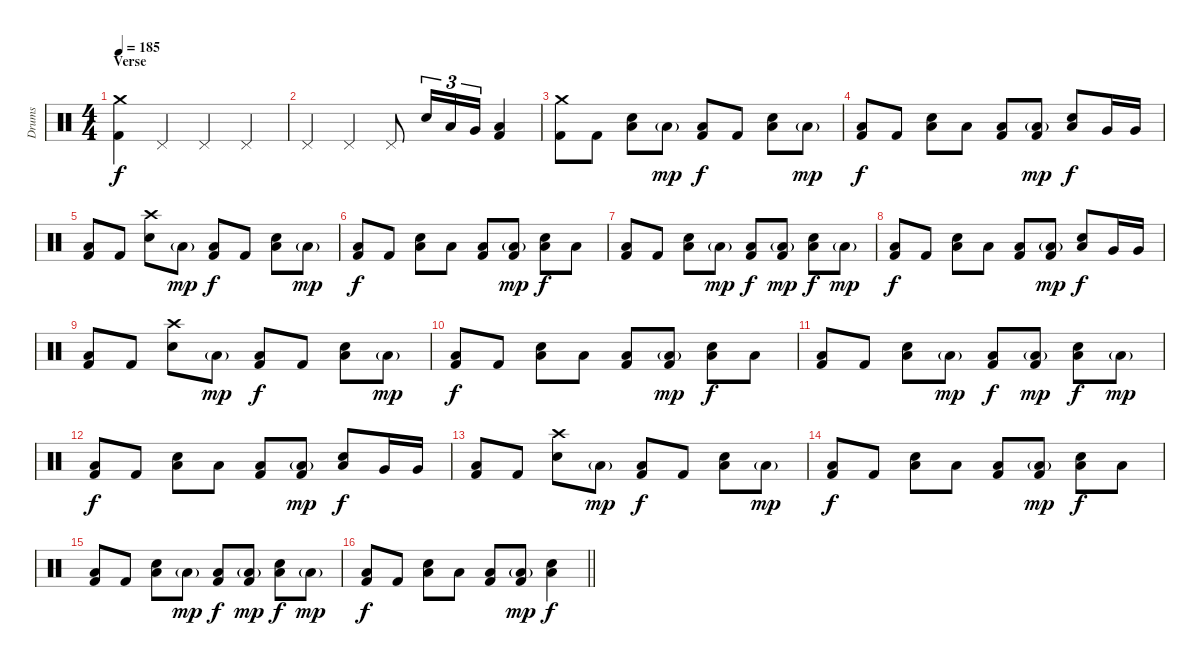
\track ("Drums" "Drums") {instrument percussion}
\staff {score}
\articulation defaults
\ts (4 4)
\section ("" "Verse")
\tempo 185
\clef neutral
\ks c
("Crash medium (hit)" "Kick (hit) 2").4{dy f} "Pedal Hi-Hat (hit)".4 "Pedal Hi-Hat (hit)".4 "Pedal Hi-Hat (hit)".4 |
"Pedal Hi-Hat (hit)".4 "Pedal Hi-Hat (hit)".4 "Pedal Hi-Hat (hit)".8 "Electric Snare (hit)".16{tu (3 2)} "Low Tom (hit)".16{tu (3 2)} "Very Low Tom (hit)".16{tu (3 2)} ("Low Floor Tom (hit)" "Kick (hit) 2").4 |
("Crash medium (hit)" "Kick (hit) 2").8 "Kick (hit) 2".8 ("Low Floor Tom (hit)" "Electric Snare (hit)").8 "Low Floor Tom (hit)"{g}.8{dy mp} ("Low Floor Tom (hit)" "Kick (hit) 2").8{dy f} "Kick (hit) 2".8 ("Low Floor Tom (hit)" "Electric Snare (hit)").8 "Low Floor Tom (hit)"{g}.8{dy mp} |
("Low Floor Tom (hit)" "Kick (hit) 2").8{dy f} "Kick (hit) 2".8 ("Low Floor Tom (hit)" "Electric Snare (hit)").8 "Low Floor Tom (hit)".8 ("Low Floor Tom (hit)" "Kick (hit) 2").8 ("Low Floor Tom (hit)"{g} "Kick (hit) 2").8{dy mp} ("Low Floor Tom (hit)" "Electric Snare (hit)").8{dy f} "Very Low Tom (hit)".16 "Very Low Tom (hit)".16 |
("Low Floor Tom (hit)" "Kick (hit) 2").8 "Kick (hit) 2".8 ("Crash high (hit)" "Electric Snare (hit)").8 "Low Floor Tom (hit)"{g}.8{dy mp} ("Low Floor Tom (hit)" "Kick (hit) 2").8{dy f} "Kick (hit) 2".8 ("Low Floor Tom (hit)" "Electric Snare (hit)").8 "Low Floor Tom (hit)"{g}.8{dy mp} |
("Low Floor Tom (hit)" "Kick (hit) 2").8{dy f} "Kick (hit) 2".8 ("Low Floor Tom (hit)" "Electric Snare (hit)").8 "Low Floor Tom (hit)".8 ("Low Floor Tom (hit)" "Kick (hit) 2").8 ("Low Floor Tom (hit)"{g} "Kick (hit) 2").8{dy mp} ("Low Floor Tom (hit)" "Electric Snare (hit)").8{dy f} "Low Floor Tom (hit)".8 |
("Low Floor Tom (hit)" "Kick (hit) 2").8 "Kick (hit) 2".8 ("Low Floor Tom (hit)" "Electric Snare (hit)").8 "Low Floor Tom (hit)"{g}.8{dy mp} ("Low Floor Tom (hit)" "Kick (hit) 2").8{dy f} ("Low Floor Tom (hit)"{g} "Kick (hit) 2").8{dy mp} ("Low Floor Tom (hit)" "Electric Snare (hit)").8{dy f} "Low Floor Tom (hit)"{g}.8{dy mp} |
("Low Floor Tom (hit)" "Kick (hit) 2").8{dy f} "Kick (hit) 2".8 ("Low Floor Tom (hit)" "Electric Snare (hit)").8 "Low Floor Tom (hit)".8 ("Low Floor Tom (hit)" "Kick (hit) 2").8 ("Low Floor Tom (hit)"{g} "Kick (hit) 2").8{dy mp} ("Low Tom (hit)" "Electric Snare (hit)").8{dy f} "Very Low Tom (hit)".16 "Very Low Tom (hit)".16 |
("Low Floor Tom (hit)" "Kick (hit) 2").8 "Kick (hit) 2".8 ("Crash high (hit)" "Electric Snare (hit)").8 "Low Floor Tom (hit)"{g}.8{dy mp} ("Low Floor Tom (hit)" "Kick (hit) 2").8{dy f} "Kick (hit) 2".8 ("Low Floor Tom (hit)" "Electric Snare (hit)").8 "Low Floor Tom (hit)"{g}.8{dy mp} |
("Low Floor Tom (hit)" "Kick (hit) 2").8{dy f} "Kick (hit) 2".8 ("Low Floor Tom (hit)" "Electric Snare (hit)").8 "Low Floor Tom (hit)".8 ("Low Floor Tom (hit)" "Kick (hit) 2").8 ("Low Floor Tom (hit)"{g} "Kick (hit) 2").8{dy mp} ("Low Floor Tom (hit)" "Electric Snare (hit)").8{dy f} "Low Floor Tom (hit)".8 |
("Low Floor Tom (hit)" "Kick (hit) 2").8 "Kick (hit) 2".8 ("Low Floor Tom (hit)" "Electric Snare (hit)").8 "Low Floor Tom (hit)"{g}.8{dy mp} ("Low Floor Tom (hit)" "Kick (hit) 2").8{dy f} ("Low Floor Tom (hit)"{g} "Kick (hit) 2").8{dy mp} ("Low Floor Tom (hit)" "Electric Snare (hit)").8{dy f} "Low Floor Tom (hit)"{g}.8{dy mp} |
("Low Floor Tom (hit)" "Kick (hit) 2").8{dy f} "Kick (hit) 2".8 ("Low Floor Tom (hit)" "Electric Snare (hit)").8 "Low Floor Tom (hit)".8 ("Low Floor Tom (hit)" "Kick (hit) 2").8 ("Low Floor Tom (hit)"{g} "Kick (hit) 2").8{dy mp} ("Low Floor Tom (hit)" "Electric Snare (hit)").8{dy f} "Very Low Tom (hit)".16 "Very Low Tom (hit)".16 |
("Low Floor Tom (hit)" "Kick (hit) 2").8 "Kick (hit) 2".8 ("Crash high (hit)" "Electric Snare (hit)").8 "Low Floor Tom (hit)"{g}.8{dy mp} ("Low Floor Tom (hit)" "Kick (hit) 2").8{dy f} "Kick (hit) 2".8 ("Low Floor Tom (hit)" "Electric Snare (hit)").8 "Low Floor Tom (hit)"{g}.8{dy mp} |
("Low Floor Tom (hit)" "Kick (hit) 2").8{dy f} "Kick (hit) 2".8 ("Low Floor Tom (hit)" "Electric Snare (hit)").8 "Low Floor Tom (hit)".8 ("Low Floor Tom (hit)" "Kick (hit) 2").8 ("Low Floor Tom (hit)"{g} "Kick (hit) 2").8{dy mp} ("Low Floor Tom (hit)" "Electric Snare (hit)").8{dy f} "Low Floor Tom (hit)".8 |
("Low Floor Tom (hit)" "Kick (hit) 2").8 "Kick (hit) 2".8 ("Low Floor Tom (hit)" "Electric Snare (hit)").8 "Low Floor Tom (hit)"{g}.8{dy mp} ("Low Floor Tom (hit)" "Kick (hit) 2").8{dy f} ("Low Floor Tom (hit)"{g} "Kick (hit) 2").8{dy mp} ("Low Floor Tom (hit)" "Electric Snare (hit)").8{dy f} "Low Floor Tom (hit)"{g}.8{dy mp} |
\barLineRight lightlight
("Low Floor Tom (hit)" "Kick (hit) 2").8{dy f} "Kick (hit) 2".8 ("Low Floor Tom (hit)" "Electric Snare (hit)").8 "Low Floor Tom (hit)".8 ("Low Floor Tom (hit)" "Kick (hit) 2").8 ("Low Floor Tom (hit)"{g} "Kick (hit) 2").8{dy mp} ("Low Floor Tom (hit)" "Electric Snare (hit)").4{dy f}
